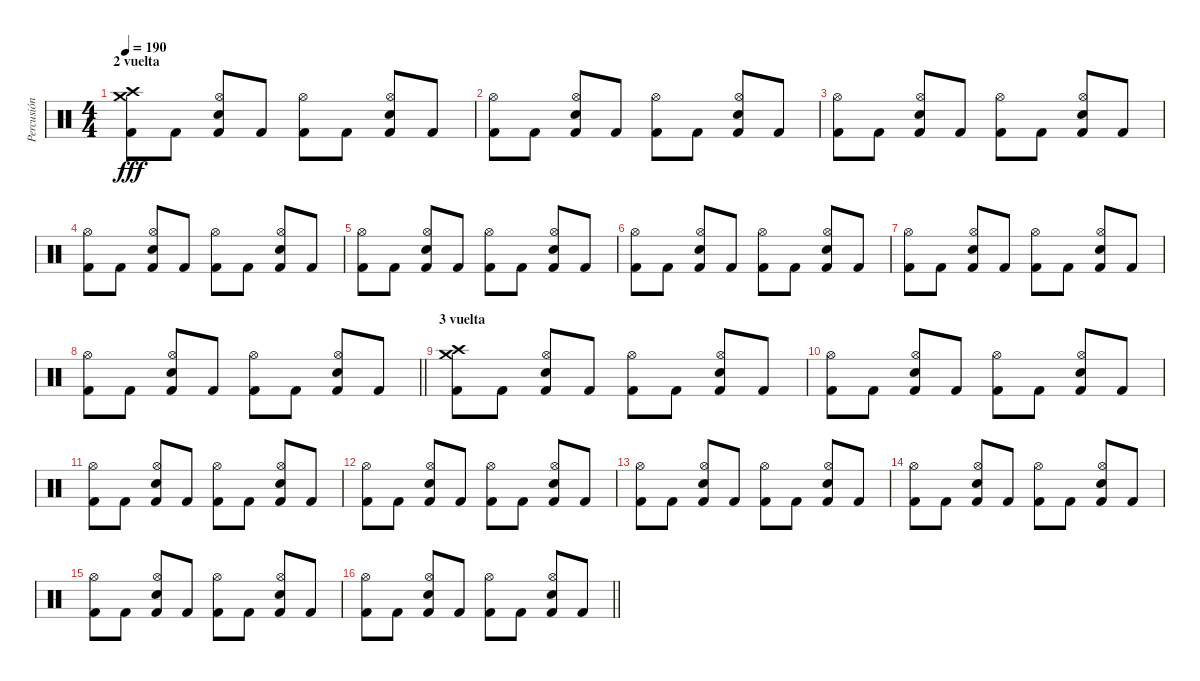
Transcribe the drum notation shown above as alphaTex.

\track ("Percusión" "Percusión") {instrument percussion}
\staff {score}
\articulation defaults
\ts (4 4)
\section ("" "2 vuelta")
\tempo 190
\clef neutral
\ks c
("Crash high (hit)" "Crash medium (hit)" "Kick (hit) 2").8{dy fff} "Kick (hit) 2".8 ("Hi-Hat (open)" "Electric Snare (hit)" "Kick (hit) 2").8 "Kick (hit) 2".8 ("Hi-Hat (open)" "Kick (hit) 2").8 "Kick (hit) 2".8 ("Hi-Hat (open)" "Electric Snare (hit)" "Kick (hit) 2").8 "Kick (hit) 2".8 |
("Hi-Hat (open)" "Kick (hit) 2").8 "Kick (hit) 2".8 ("Hi-Hat (open)" "Electric Snare (hit)" "Kick (hit) 2").8 "Kick (hit) 2".8 ("Hi-Hat (open)" "Kick (hit) 2").8 "Kick (hit) 2".8 ("Hi-Hat (open)" "Electric Snare (hit)" "Kick (hit) 2").8 "Kick (hit) 2".8 |
("Hi-Hat (open)" "Kick (hit) 2").8 "Kick (hit) 2".8 ("Hi-Hat (open)" "Electric Snare (hit)" "Kick (hit) 2").8 "Kick (hit) 2".8 ("Hi-Hat (open)" "Kick (hit) 2").8 "Kick (hit) 2".8 ("Hi-Hat (open)" "Electric Snare (hit)" "Kick (hit) 2").8 "Kick (hit) 2".8 |
("Hi-Hat (open)" "Kick (hit) 2").8 "Kick (hit) 2".8 ("Hi-Hat (open)" "Electric Snare (hit)" "Kick (hit) 2").8 "Kick (hit) 2".8 ("Hi-Hat (open)" "Kick (hit) 2").8 "Kick (hit) 2".8 ("Hi-Hat (open)" "Electric Snare (hit)" "Kick (hit) 2").8 "Kick (hit) 2".8 |
("Hi-Hat (open)" "Kick (hit) 2").8 "Kick (hit) 2".8 ("Hi-Hat (open)" "Electric Snare (hit)" "Kick (hit) 2").8 "Kick (hit) 2".8 ("Hi-Hat (open)" "Kick (hit) 2").8 "Kick (hit) 2".8 ("Hi-Hat (open)" "Electric Snare (hit)" "Kick (hit) 2").8 "Kick (hit) 2".8 |
("Hi-Hat (open)" "Kick (hit) 2").8 "Kick (hit) 2".8 ("Hi-Hat (open)" "Electric Snare (hit)" "Kick (hit) 2").8 "Kick (hit) 2".8 ("Hi-Hat (open)" "Kick (hit) 2").8 "Kick (hit) 2".8 ("Hi-Hat (open)" "Electric Snare (hit)" "Kick (hit) 2").8 "Kick (hit) 2".8 |
("Hi-Hat (open)" "Kick (hit) 2").8 "Kick (hit) 2".8 ("Hi-Hat (open)" "Electric Snare (hit)" "Kick (hit) 2").8 "Kick (hit) 2".8 ("Hi-Hat (open)" "Kick (hit) 2").8 "Kick (hit) 2".8 ("Hi-Hat (open)" "Electric Snare (hit)" "Kick (hit) 2").8 "Kick (hit) 2".8 |
\barLineRight lightlight
("Hi-Hat (open)" "Kick (hit) 2").8 "Kick (hit) 2".8 ("Hi-Hat (open)" "Electric Snare (hit)" "Kick (hit) 2").8 "Kick (hit) 2".8 ("Hi-Hat (open)" "Kick (hit) 2").8 "Kick (hit) 2".8 ("Hi-Hat (open)" "Electric Snare (hit)" "Kick (hit) 2").8 "Kick (hit) 2".8 |
\section ("" "3 vuelta")
("Crash high (hit)" "Crash medium (hit)" "Kick (hit) 2").8 "Kick (hit) 2".8 ("Hi-Hat (open)" "Electric Snare (hit)" "Kick (hit) 2").8 "Kick (hit) 2".8 ("Hi-Hat (open)" "Kick (hit) 2").8 "Kick (hit) 2".8 ("Hi-Hat (open)" "Electric Snare (hit)" "Kick (hit) 2").8 "Kick (hit) 2".8 |
("Hi-Hat (open)" "Kick (hit) 2").8 "Kick (hit) 2".8 ("Hi-Hat (open)" "Electric Snare (hit)" "Kick (hit) 2").8 "Kick (hit) 2".8 ("Hi-Hat (open)" "Kick (hit) 2").8 "Kick (hit) 2".8 ("Hi-Hat (open)" "Electric Snare (hit)" "Kick (hit) 2").8 "Kick (hit) 2".8 |
("Hi-Hat (open)" "Kick (hit) 2").8 "Kick (hit) 2".8 ("Hi-Hat (open)" "Electric Snare (hit)" "Kick (hit) 2").8 "Kick (hit) 2".8 ("Hi-Hat (open)" "Kick (hit) 2").8 "Kick (hit) 2".8 ("Hi-Hat (open)" "Electric Snare (hit)" "Kick (hit) 2").8 "Kick (hit) 2".8 |
("Hi-Hat (open)" "Kick (hit) 2").8 "Kick (hit) 2".8 ("Hi-Hat (open)" "Electric Snare (hit)" "Kick (hit) 2").8 "Kick (hit) 2".8 ("Hi-Hat (open)" "Kick (hit) 2").8 "Kick (hit) 2".8 ("Hi-Hat (open)" "Electric Snare (hit)" "Kick (hit) 2").8 "Kick (hit) 2".8 |
("Hi-Hat (open)" "Kick (hit) 2").8 "Kick (hit) 2".8 ("Hi-Hat (open)" "Electric Snare (hit)" "Kick (hit) 2").8 "Kick (hit) 2".8 ("Hi-Hat (open)" "Kick (hit) 2").8 "Kick (hit) 2".8 ("Hi-Hat (open)" "Electric Snare (hit)" "Kick (hit) 2").8 "Kick (hit) 2".8 |
("Hi-Hat (open)" "Kick (hit) 2").8 "Kick (hit) 2".8 ("Hi-Hat (open)" "Electric Snare (hit)" "Kick (hit) 2").8 "Kick (hit) 2".8 ("Hi-Hat (open)" "Kick (hit) 2").8 "Kick (hit) 2".8 ("Hi-Hat (open)" "Electric Snare (hit)" "Kick (hit) 2").8 "Kick (hit) 2".8 |
("Hi-Hat (open)" "Kick (hit) 2").8 "Kick (hit) 2".8 ("Hi-Hat (open)" "Electric Snare (hit)" "Kick (hit) 2").8 "Kick (hit) 2".8 ("Hi-Hat (open)" "Kick (hit) 2").8 "Kick (hit) 2".8 ("Hi-Hat (open)" "Electric Snare (hit)" "Kick (hit) 2").8 "Kick (hit) 2".8 |
\barLineRight lightlight
("Hi-Hat (open)" "Kick (hit) 2").8 "Kick (hit) 2".8 ("Hi-Hat (open)" "Electric Snare (hit)" "Kick (hit) 2").8 "Kick (hit) 2".8 ("Hi-Hat (open)" "Kick (hit) 2").8 "Kick (hit) 2".8 ("Hi-Hat (open)" "Electric Snare (hit)" "Kick (hit) 2").8 "Kick (hit) 2".8
